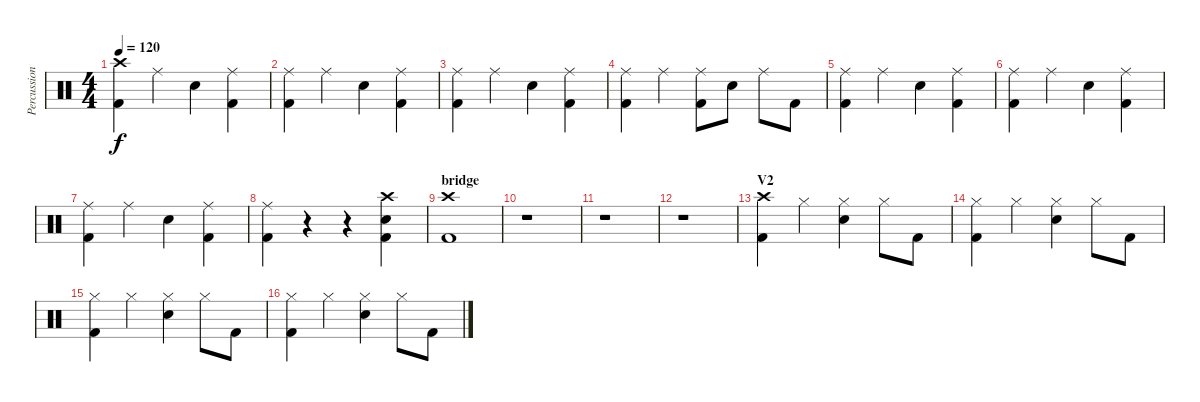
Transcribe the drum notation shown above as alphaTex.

\track ("Percussion" "Percussion") {instrument percussion}
\staff {score}
\articulation defaults
\ts (4 4)
\tempo 120
\clef neutral
\ks c
("Crash high (hit)" "Kick (hit) 2").4{dy f} "Ride (middle)".4 "Snare (hit) 2".4 ("Ride (middle)" "Kick (hit) 2").4 |
("Ride (middle)" "Kick (hit) 2").4 "Ride (middle)".4 "Snare (hit) 2".4 ("Ride (middle)" "Kick (hit) 2").4 |
("Ride (middle)" "Kick (hit) 2").4 "Ride (middle)".4 "Snare (hit) 2".4 ("Ride (middle)" "Kick (hit) 2").4 |
("Ride (middle)" "Kick (hit) 2").4 "Ride (middle)".4 ("Ride (middle)" "Kick (hit) 2").8 "Snare (hit) 2".8 "Ride (middle)".8 "Kick (hit) 2".8 |
("Ride (middle)" "Kick (hit) 2").4 "Ride (middle)".4 "Snare (hit) 2".4 ("Ride (middle)" "Kick (hit) 2").4 |
("Ride (middle)" "Kick (hit) 2").4 "Ride (middle)".4 "Snare (hit) 2".4 ("Ride (middle)" "Kick (hit) 2").4 |
("Ride (middle)" "Kick (hit) 2").4 "Ride (middle)".4 "Snare (hit) 2".4 ("Ride (middle)" "Kick (hit) 2").4 |
("Ride (middle)" "Kick (hit) 2").4 r.4 r.4 ("Crash high (hit)" "Snare (hit) 2" "Kick (hit) 2").4 |
\section ("" "bridge")
("Crash high (hit)" "Kick (hit) 2").1 |
r.1 |
r.1 |
r.1 |
\section ("" "V2")
("Crash high (hit)" "Kick (hit) 2").4 "Hi-Hat (closed)".4 ("Hi-Hat (closed)" "Snare (hit) 2").4 "Hi-Hat (closed)".8 "Kick (hit) 2".8 |
("Hi-Hat (closed)" "Kick (hit) 2").4 "Hi-Hat (closed)".4 ("Snare (hit) 2" "Hi-Hat (closed)").4 "Hi-Hat (closed)".8 "Kick (hit) 2".8 |
("Hi-Hat (closed)" "Kick (hit) 2").4 "Hi-Hat (closed)".4 ("Snare (hit) 2" "Hi-Hat (closed)").4 "Hi-Hat (closed)".8 "Kick (hit) 2".8 |
("Hi-Hat (closed)" "Kick (hit) 2").4 "Hi-Hat (closed)".4 ("Snare (hit) 2" "Hi-Hat (closed)").4 "Hi-Hat (closed)".8 "Kick (hit) 2".8
